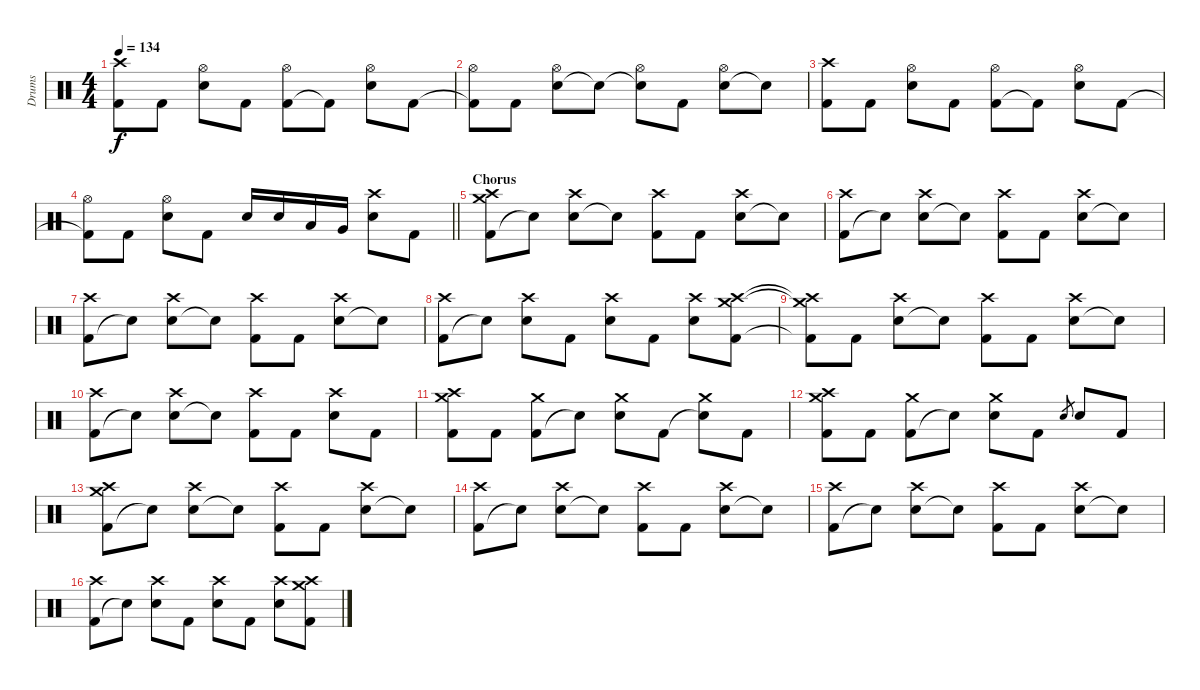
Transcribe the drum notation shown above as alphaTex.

\track ("Drums" "Drums") {instrument percussion}
\staff {score}
\articulation defaults
\ts (4 4)
\tempo 134
\clef neutral
\ks c
("Kick (hit) 2" "Crash high (hit)").8{dy f} "Kick (hit) 2".8 ("Electric Snare (hit)" "Hi-Hat (open)").8 "Kick (hit) 2".8 ("Kick (hit) 2" "Hi-Hat (open)").8 "Kick (hit) 2"{t}.8 ("Electric Snare (hit)" "Hi-Hat (open)").8 "Kick (hit) 2".8 |
("Kick (hit) 2"{t} "Hi-Hat (open)").8 "Kick (hit) 2".8 ("Electric Snare (hit)" "Hi-Hat (open)").8 "Electric Snare (hit)"{t}.8 ("Snare (hit)"{t} "Hi-Hat (open)").8 "Kick (hit) 2".8 ("Electric Snare (hit)" "Hi-Hat (open)").8 "Electric Snare (hit)"{t}.8 |
("Kick (hit) 2" "Crash high (hit)").8 "Kick (hit) 2".8 ("Electric Snare (hit)" "Hi-Hat (open)").8 "Kick (hit) 2".8 ("Kick (hit) 2" "Hi-Hat (open)").8 "Kick (hit) 2"{t}.8 ("Electric Snare (hit)" "Hi-Hat (open)").8 "Kick (hit) 2".8 |
\barLineRight lightlight
("Kick (hit) 2"{t} "Hi-Hat (open)").8 "Kick (hit) 2".8 ("Electric Snare (hit)" "Hi-Hat (open)").8 "Kick (hit) 2".8 "Electric Snare (hit)".16 "Electric Snare (hit)".16 "Low Tom (hit)".16 "Very Low Tom (hit)".16 ("Electric Snare (hit)" "Crash high (hit)").8 "Kick (hit) 2".8 |
\section ("" "Chorus")
("Kick (hit) 2" "Crash medium (hit)" "Crash high (hit)").8 "Snare (hit)"{t}.8 ("Electric Snare (hit)" "Crash high (hit)").8 "Snare (hit)"{t}.8 ("Kick (hit) 2" "Crash high (hit)").8 "Kick (hit) 2".8 ("Electric Snare (hit)" "Crash high (hit)").8 "Snare (hit)"{t}.8 |
("Kick (hit) 2" "Crash high (hit)").8 "Snare (hit)"{t}.8 ("Electric Snare (hit)" "Crash high (hit)").8 "Snare (hit)"{t}.8 ("Kick (hit) 2" "Crash high (hit)").8 "Kick (hit) 2".8 ("Electric Snare (hit)" "Crash high (hit)").8 "Snare (hit)"{t}.8 |
("Kick (hit) 2" "Crash high (hit)").8 "Snare (hit)"{t}.8 ("Electric Snare (hit)" "Crash high (hit)").8 "Snare (hit)"{t}.8 ("Kick (hit) 2" "Crash high (hit)").8 "Kick (hit) 2".8 ("Electric Snare (hit)" "Crash high (hit)").8 "Snare (hit)"{t}.8 |
("Kick (hit) 2" "Crash high (hit)").8 "Snare (hit)"{t}.8 ("Electric Snare (hit)" "Crash high (hit)").8 "Kick (hit) 2".8 ("Electric Snare (hit)" "Crash high (hit)").8 "Kick (hit) 2".8 ("Electric Snare (hit)" "Crash high (hit)").8 ("Kick (hit) 2" "Crash medium (hit)" "Crash high (hit)").8 |
("Kick (hit) 2"{t} "Crash medium (hit)"{t} "Crash high (hit)"{t}).8 "Kick (hit) 2".8 ("Electric Snare (hit)" "Crash high (hit)").8 "Snare (hit)"{t}.8 ("Kick (hit) 2" "Crash high (hit)").8 "Kick (hit) 2".8 ("Electric Snare (hit)" "Crash high (hit)").8 "Snare (hit)"{t}.8 |
("Kick (hit) 2" "Crash high (hit)").8 "Snare (hit)"{t}.8 ("Electric Snare (hit)" "Crash high (hit)").8 "Snare (hit)"{t}.8 ("Kick (hit) 2" "Crash high (hit)").8 "Kick (hit) 2".8 ("Electric Snare (hit)" "Crash high (hit)").8 "Kick (hit) 2".8 |
("Kick (hit) 2" "Crash medium (hit)" "Crash high (hit)").8 "Kick (hit) 2".8 ("Kick (hit) 2" "Crash medium (hit)").8 "Snare (hit)"{t}.8 ("Electric Snare (hit)" "Crash medium (hit)").8 "Kick (hit) 2".8 ("Electric Snare (hit)"{t} "Crash medium (hit)").8 "Kick (hit) 2".8 |
("Kick (hit) 2" "Crash medium (hit)" "Crash high (hit)").8 "Kick (hit) 2".8 ("Kick (hit) 2" "Crash medium (hit)").8 "Snare (hit)"{t}.8 ("Electric Snare (hit)" "Crash medium (hit)").8 "Kick (hit) 2".8 "Electric Snare (hit)".8{gr} "Electric Snare (hit)".8 "Kick (hit) 2".8 |
("Kick (hit) 2" "Crash medium (hit)" "Crash high (hit)").8 "Snare (hit)"{t}.8 ("Electric Snare (hit)" "Crash high (hit)").8 "Snare (hit)"{t}.8 ("Kick (hit) 2" "Crash high (hit)").8 "Kick (hit) 2".8 ("Electric Snare (hit)" "Crash high (hit)").8 "Snare (hit)"{t}.8 |
("Kick (hit) 2" "Crash high (hit)").8 "Snare (hit)"{t}.8 ("Electric Snare (hit)" "Crash high (hit)").8 "Snare (hit)"{t}.8 ("Kick (hit) 2" "Crash high (hit)").8 "Kick (hit) 2".8 ("Electric Snare (hit)" "Crash high (hit)").8 "Snare (hit)"{t}.8 |
("Kick (hit) 2" "Crash high (hit)").8 "Snare (hit)"{t}.8 ("Electric Snare (hit)" "Crash high (hit)").8 "Snare (hit)"{t}.8 ("Kick (hit) 2" "Crash high (hit)").8 "Kick (hit) 2".8 ("Electric Snare (hit)" "Crash high (hit)").8 "Snare (hit)"{t}.8 |
("Kick (hit) 2" "Crash high (hit)").8 "Snare (hit)"{t}.8 ("Electric Snare (hit)" "Crash high (hit)").8 "Kick (hit) 2".8 ("Electric Snare (hit)" "Crash high (hit)").8 "Kick (hit) 2".8 ("Electric Snare (hit)" "Crash high (hit)").8 ("Kick (hit) 2" "Crash medium (hit)" "Crash high (hit)").8
